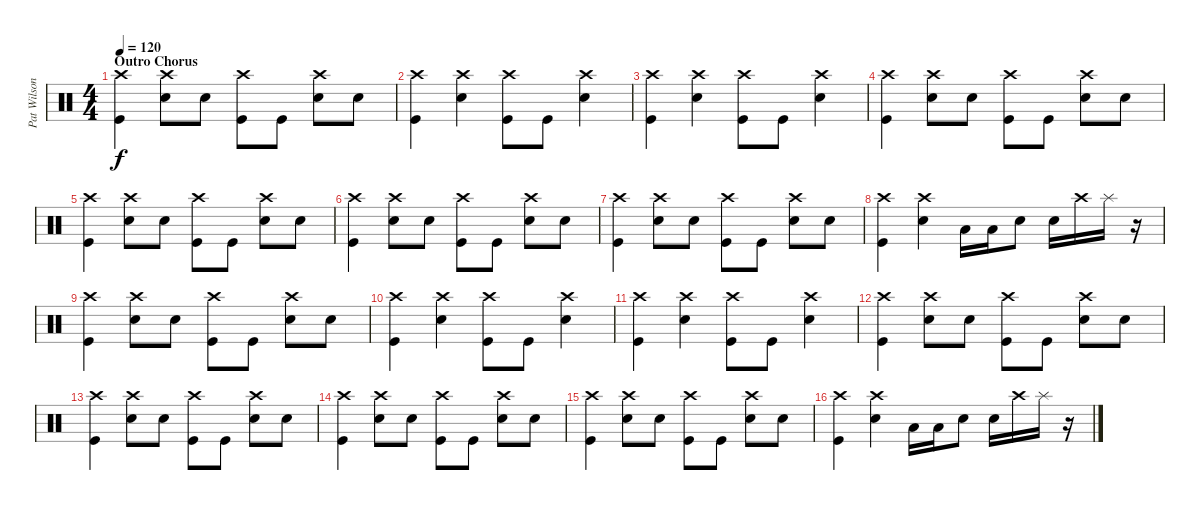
\track ("Pat Wilson" "Pat Wilson") {instrument percussion}
\staff {score}
\articulation defaults
\ts (4 4)
\section ("" "Outro Chorus")
\tempo 120
\clef neutral
\ks c
("Crash high (hit)" "Kick (hit)").4{dy f} ("Snare (hit) 2" "Crash high (hit)").8 "Snare (hit) 2".8 ("Crash high (hit)" "Kick (hit)").8 "Kick (hit)".8 ("Snare (hit) 2" "Crash high (hit)").8 "Snare (hit) 2".8 |
("Crash high (hit)" "Kick (hit)").4 ("Snare (hit) 2" "Crash high (hit)").4 ("Crash high (hit)" "Kick (hit)").8 "Kick (hit)".8 ("Snare (hit) 2" "Crash high (hit)").4 |
("Crash high (hit)" "Kick (hit)").4 ("Snare (hit) 2" "Crash high (hit)").4 ("Crash high (hit)" "Kick (hit)").8 "Kick (hit)".8 ("Snare (hit) 2" "Crash high (hit)").4 |
("Crash high (hit)" "Kick (hit)").4 ("Snare (hit) 2" "Crash high (hit)").8 "Snare (hit) 2".8 ("Crash high (hit)" "Kick (hit)").8 "Kick (hit)".8 ("Snare (hit) 2" "Crash high (hit)").8 "Snare (hit) 2".8 |
("Crash high (hit)" "Kick (hit)").4 ("Snare (hit) 2" "Crash high (hit)").8 "Snare (hit) 2".8 ("Crash high (hit)" "Kick (hit)").8 "Kick (hit)".8 ("Snare (hit) 2" "Crash high (hit)").8 "Snare (hit) 2".8 |
("Crash high (hit)" "Kick (hit)").4 ("Snare (hit) 2" "Crash high (hit)").8 "Snare (hit) 2".8 ("Crash high (hit)" "Kick (hit)").8 "Kick (hit)".8 ("Snare (hit) 2" "Crash high (hit)").8 "Snare (hit) 2".8 |
("Crash high (hit)" "Kick (hit)").4 ("Snare (hit) 2" "Crash high (hit)").8 "Snare (hit) 2".8 ("Crash high (hit)" "Kick (hit)").8 "Kick (hit)".8 ("Snare (hit) 2" "Crash high (hit)").8 "Snare (hit) 2".8 |
("Crash high (hit)" "Kick (hit)").4 ("Snare (hit) 2" "Crash high (hit)").4 "Low Tom (hit)".16 "Low Tom (hit)".16 "Snare (hit) 2".8 "Snare (hit) 2".16 "Crash high (hit)".16 "Splash (hit)".16 r.16 |
("Crash high (hit)" "Kick (hit)").4 ("Snare (hit) 2" "Crash high (hit)").8 "Snare (hit) 2".8 ("Crash high (hit)" "Kick (hit)").8 "Kick (hit)".8 ("Snare (hit) 2" "Crash high (hit)").8 "Snare (hit) 2".8 |
("Crash high (hit)" "Kick (hit)").4 ("Snare (hit) 2" "Crash high (hit)").4 ("Crash high (hit)" "Kick (hit)").8 "Kick (hit)".8 ("Snare (hit) 2" "Crash high (hit)").4 |
("Crash high (hit)" "Kick (hit)").4 ("Snare (hit) 2" "Crash high (hit)").4 ("Crash high (hit)" "Kick (hit)").8 "Kick (hit)".8 ("Snare (hit) 2" "Crash high (hit)").4 |
("Crash high (hit)" "Kick (hit)").4 ("Snare (hit) 2" "Crash high (hit)").8 "Snare (hit) 2".8 ("Crash high (hit)" "Kick (hit)").8 "Kick (hit)".8 ("Snare (hit) 2" "Crash high (hit)").8 "Snare (hit) 2".8 |
("Crash high (hit)" "Kick (hit)").4 ("Snare (hit) 2" "Crash high (hit)").8 "Snare (hit) 2".8 ("Crash high (hit)" "Kick (hit)").8 "Kick (hit)".8 ("Snare (hit) 2" "Crash high (hit)").8 "Snare (hit) 2".8 |
("Crash high (hit)" "Kick (hit)").4 ("Snare (hit) 2" "Crash high (hit)").8 "Snare (hit) 2".8 ("Crash high (hit)" "Kick (hit)").8 "Kick (hit)".8 ("Snare (hit) 2" "Crash high (hit)").8 "Snare (hit) 2".8 |
("Crash high (hit)" "Kick (hit)").4 ("Snare (hit) 2" "Crash high (hit)").8 "Snare (hit) 2".8 ("Crash high (hit)" "Kick (hit)").8 "Kick (hit)".8 ("Snare (hit) 2" "Crash high (hit)").8 "Snare (hit) 2".8 |
("Crash high (hit)" "Kick (hit)").4 ("Snare (hit) 2" "Crash high (hit)").4 "Low Tom (hit)".16 "Low Tom (hit)".16 "Snare (hit) 2".8 "Snare (hit) 2".16 "Crash high (hit)".16 "Splash (hit)".16 r.16
